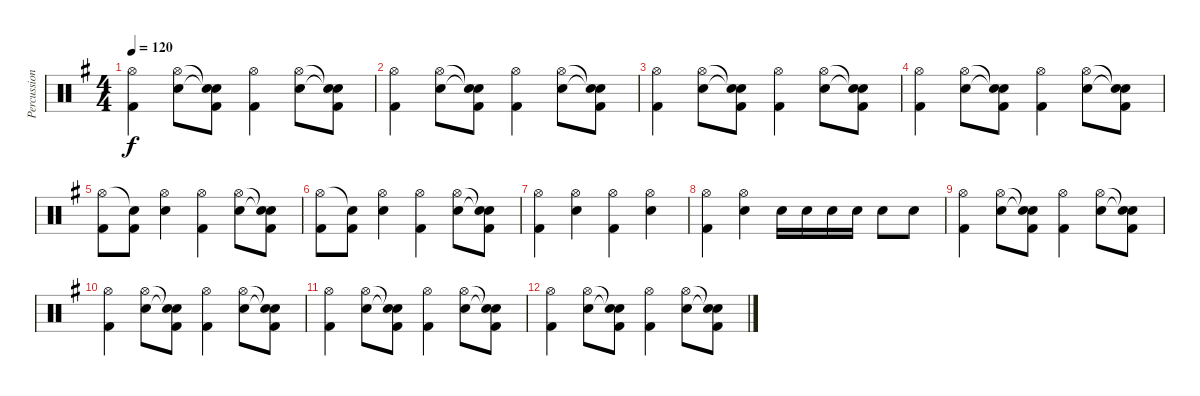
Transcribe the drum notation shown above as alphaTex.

\track ("Percussion" "Percussion") {instrument percussion}
\staff {score}
\articulation defaults
\ts (4 4)
\tempo 120
\clef neutral
\ks g
("Hi-Hat (open)" "Kick (hit) 2").4{dy f} ("Hi-Hat (open)" "Snare (hit) 2").8 ("Snare (hit)"{t} "Snare (hit)"{t} "Kick (hit) 2").8 ("Hi-Hat (open)" "Kick (hit) 2").4 ("Hi-Hat (open)" "Snare (hit) 2").8 ("Snare (hit)"{t} "Snare (hit)"{t} "Kick (hit) 2").8 |
("Hi-Hat (open)" "Kick (hit) 2").4 ("Hi-Hat (open)" "Snare (hit) 2").8 ("Snare (hit)"{t} "Snare (hit)"{t} "Kick (hit) 2").8 ("Hi-Hat (open)" "Kick (hit) 2").4 ("Hi-Hat (open)" "Snare (hit) 2").8 ("Snare (hit)"{t} "Snare (hit)"{t} "Kick (hit) 2").8 |
("Hi-Hat (open)" "Kick (hit) 2").4 ("Hi-Hat (open)" "Snare (hit) 2").8 ("Snare (hit)"{t} "Snare (hit)"{t} "Kick (hit) 2").8 ("Hi-Hat (open)" "Kick (hit) 2").4 ("Hi-Hat (open)" "Snare (hit) 2").8 ("Snare (hit)"{t} "Snare (hit)"{t} "Kick (hit) 2").8 |
("Hi-Hat (open)" "Kick (hit) 2").4 ("Hi-Hat (open)" "Snare (hit) 2").8 ("Snare (hit)"{t} "Snare (hit)"{t} "Kick (hit) 2").8 ("Hi-Hat (open)" "Kick (hit) 2").4 ("Hi-Hat (open)" "Snare (hit) 2").8 ("Snare (hit)"{t} "Snare (hit)"{t} "Kick (hit) 2").8 |
("Hi-Hat (open)" "Kick (hit) 2").8 ("Snare (hit)"{t} "Kick (hit) 2").8 ("Hi-Hat (open)" "Snare (hit) 2").4 ("Hi-Hat (open)" "Kick (hit) 2").4 ("Hi-Hat (open)" "Snare (hit) 2").8 ("Snare (hit)"{t} "Snare (hit)"{t} "Kick (hit) 2").8 |
("Hi-Hat (open)" "Kick (hit) 2").8 ("Snare (hit)"{t} "Kick (hit) 2").8 ("Hi-Hat (open)" "Snare (hit) 2").4 ("Hi-Hat (open)" "Kick (hit) 2").4 ("Hi-Hat (open)" "Snare (hit) 2").8 ("Snare (hit)"{t} "Snare (hit)"{t} "Kick (hit) 2").8 |
("Hi-Hat (open)" "Kick (hit) 2").4 ("Hi-Hat (open)" "Snare (hit) 2").4 ("Hi-Hat (open)" "Kick (hit) 2").4 ("Hi-Hat (open)" "Snare (hit) 2").4 |
("Hi-Hat (open)" "Kick (hit) 2").4 ("Hi-Hat (open)" "Snare (hit) 2").4 "Snare (hit) 2".16 "Snare (hit) 2".16 "Snare (hit) 2".16 "Snare (hit) 2".16 "Snare (hit) 2".8 "Snare (hit) 2".8 |
("Hi-Hat (open)" "Kick (hit) 2").4 ("Hi-Hat (open)" "Snare (hit) 2").8 ("Snare (hit)"{t} "Snare (hit)"{t} "Kick (hit) 2").8 ("Hi-Hat (open)" "Kick (hit) 2").4 ("Hi-Hat (open)" "Snare (hit) 2").8 ("Snare (hit)"{t} "Snare (hit)"{t} "Kick (hit) 2").8 |
("Hi-Hat (open)" "Kick (hit) 2").4 ("Hi-Hat (open)" "Snare (hit) 2").8 ("Snare (hit)"{t} "Snare (hit)"{t} "Kick (hit) 2").8 ("Hi-Hat (open)" "Kick (hit) 2").4 ("Hi-Hat (open)" "Snare (hit) 2").8 ("Snare (hit)"{t} "Snare (hit)"{t} "Kick (hit) 2").8 |
("Hi-Hat (open)" "Kick (hit) 2").4 ("Hi-Hat (open)" "Snare (hit) 2").8 ("Snare (hit)"{t} "Snare (hit)"{t} "Kick (hit) 2").8 ("Hi-Hat (open)" "Kick (hit) 2").4 ("Hi-Hat (open)" "Snare (hit) 2").8 ("Snare (hit)"{t} "Snare (hit)"{t} "Kick (hit) 2").8 |
("Hi-Hat (open)" "Kick (hit) 2").4 ("Hi-Hat (open)" "Snare (hit) 2").8 ("Snare (hit)"{t} "Snare (hit)"{t} "Kick (hit) 2").8 ("Hi-Hat (open)" "Kick (hit) 2").4 ("Hi-Hat (open)" "Snare (hit) 2").8 ("Snare (hit)"{t} "Snare (hit)"{t} "Kick (hit) 2").8
